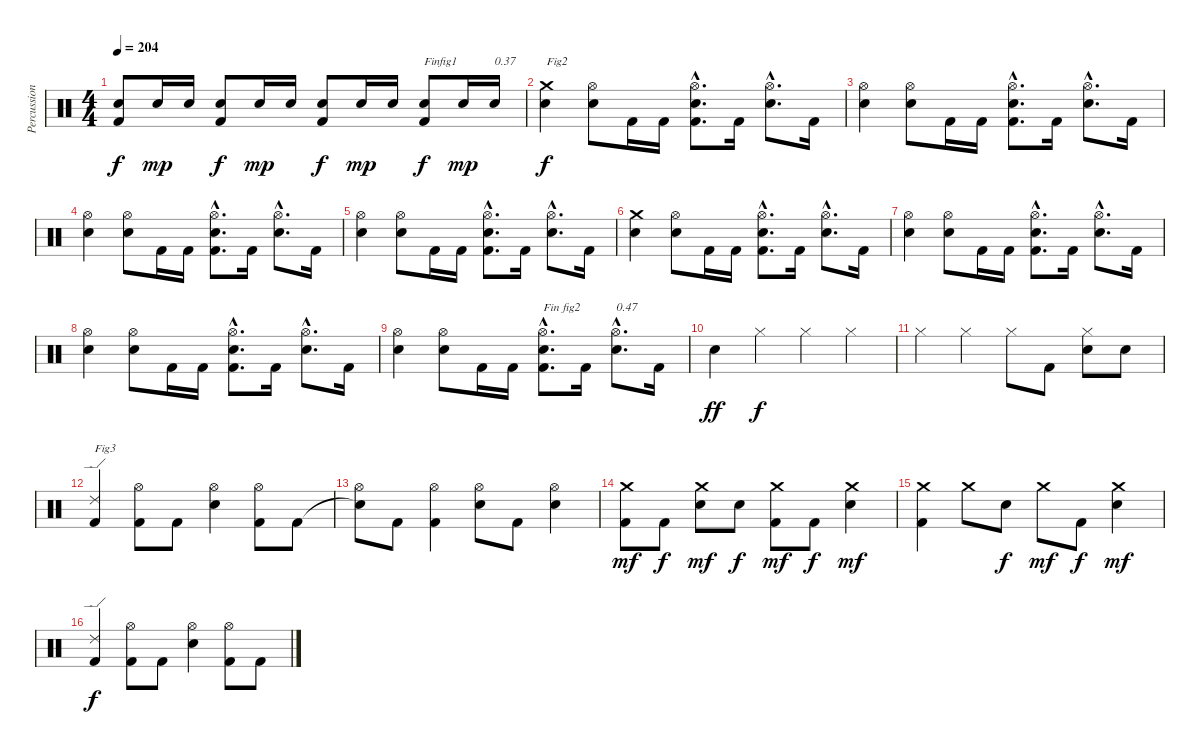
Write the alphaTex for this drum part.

\track ("Percussions" "Percussion") {instrument percussion}
\staff {score}
\articulation defaults
\ts (4 4)
\tempo 204
\clef neutral
\ks c
("Kick (hit) 2" "Electric Snare (hit)").8{dy f} "Electric Snare (hit)".16{dy mp} "Electric Snare (hit)".16 ("Kick (hit) 2" "Electric Snare (hit)").8{dy f} "Electric Snare (hit)".16{dy mp} "Electric Snare (hit)".16 ("Kick (hit) 2" "Electric Snare (hit)").8{dy f} "Electric Snare (hit)".16{dy mp} "Electric Snare (hit)".16 ("Kick (hit) 2" "Electric Snare (hit)").8{txt "Finfig1" dy f} "Electric Snare (hit)".16{dy mp} "Electric Snare (hit)".16{txt "0.37"} |
("Electric Snare (hit)" "Crash medium (hit)").4{txt "Fig2" dy f} ("Electric Snare (hit)" "Hi-Hat (open)").8 "Kick (hit) 2".16 "Kick (hit) 2".16 ("Kick (hit) 2"{hac} "Electric Snare (hit)"{hac} "Hi-Hat (open)"{hac}).8{d} "Kick (hit) 2".16 ("Electric Snare (hit)"{hac} "Hi-Hat (open)"{hac}).8{d} "Kick (hit) 2".16 |
("Electric Snare (hit)" "Hi-Hat (open)").4 ("Electric Snare (hit)" "Hi-Hat (open)").8 "Kick (hit) 2".16 "Kick (hit) 2".16 ("Kick (hit) 2"{hac} "Electric Snare (hit)"{hac} "Hi-Hat (open)"{hac}).8{d} "Kick (hit) 2".16 ("Electric Snare (hit)"{hac} "Hi-Hat (open)"{hac}).8{d} "Kick (hit) 2".16 |
("Electric Snare (hit)" "Hi-Hat (open)").4 ("Electric Snare (hit)" "Hi-Hat (open)").8 "Kick (hit) 2".16 "Kick (hit) 2".16 ("Kick (hit) 2"{hac} "Electric Snare (hit)"{hac} "Hi-Hat (open)"{hac}).8{d} "Kick (hit) 2".16 ("Electric Snare (hit)"{hac} "Hi-Hat (open)"{hac}).8{d} "Kick (hit) 2".16 |
("Electric Snare (hit)" "Hi-Hat (open)").4 ("Electric Snare (hit)" "Hi-Hat (open)").8 "Kick (hit) 2".16 "Kick (hit) 2".16 ("Kick (hit) 2"{hac} "Electric Snare (hit)"{hac} "Hi-Hat (open)"{hac}).8{d} "Kick (hit) 2".16 ("Electric Snare (hit)"{hac} "Hi-Hat (open)"{hac}).8{d} "Kick (hit) 2".16 |
("Electric Snare (hit)" "Crash medium (hit)").4 ("Electric Snare (hit)" "Hi-Hat (open)").8 "Kick (hit) 2".16 "Kick (hit) 2".16 ("Kick (hit) 2"{hac} "Electric Snare (hit)"{hac} "Hi-Hat (open)"{hac}).8{d} "Kick (hit) 2".16 ("Electric Snare (hit)"{hac} "Hi-Hat (open)"{hac}).8{d} "Kick (hit) 2".16 |
("Electric Snare (hit)" "Hi-Hat (open)").4 ("Electric Snare (hit)" "Hi-Hat (open)").8 "Kick (hit) 2".16 "Kick (hit) 2".16 ("Kick (hit) 2"{hac} "Electric Snare (hit)"{hac} "Hi-Hat (open)"{hac}).8{d} "Kick (hit) 2".16 ("Electric Snare (hit)"{hac} "Hi-Hat (open)"{hac}).8{d} "Kick (hit) 2".16 |
("Electric Snare (hit)" "Hi-Hat (open)").4 ("Electric Snare (hit)" "Hi-Hat (open)").8 "Kick (hit) 2".16 "Kick (hit) 2".16 ("Kick (hit) 2"{hac} "Electric Snare (hit)"{hac} "Hi-Hat (open)"{hac}).8{d} "Kick (hit) 2".16 ("Electric Snare (hit)"{hac} "Hi-Hat (open)"{hac}).8{d} "Kick (hit) 2".16 |
("Electric Snare (hit)" "Hi-Hat (open)").4 ("Electric Snare (hit)" "Hi-Hat (open)").8 "Kick (hit) 2".16 "Kick (hit) 2".16 ("Kick (hit) 2"{hac} "Electric Snare (hit)"{hac} "Hi-Hat (open)"{hac}).8{d txt "Fin fig2"} "Kick (hit) 2".16 ("Electric Snare (hit)"{hac} "Hi-Hat (open)"{hac}).8{d txt "0.47"} "Kick (hit) 2".16 |
"Electric Snare (hit)".4{dy ff} "Hi-Hat (closed)".4{dy f} "Hi-Hat (closed)".4 "Hi-Hat (closed)".4 |
"Hi-Hat (closed)".4 "Hi-Hat (closed)".4 "Hi-Hat (closed)".8 "Kick (hit) 2".8 ("Electric Snare (hit)" "Hi-Hat (closed)").8 "Electric Snare (hit)".8 |
("Kick (hit) 2" "Ride (edge) 2").4{txt "Fig3"} ("Kick (hit) 2" "Hi-Hat (open)").8 "Kick (hit) 2".8 ("Electric Snare (hit)" "Hi-Hat (open)").4 ("Kick (hit) 2" "Hi-Hat (open)").8 "Kick (hit) 2".8 |
("Snare (hit)"{t} "Hi-Hat (open)").8 "Kick (hit) 2".8 ("Kick (hit) 2" "Hi-Hat (open)").4 ("Electric Snare (hit)" "Hi-Hat (open)").8 "Kick (hit) 2".8 ("Electric Snare (hit)" "Hi-Hat (open)").4 |
("Kick (hit) 2" "Crash medium (hit)").8{dy mf} "Kick (hit) 2".8{dy f} ("Electric Snare (hit)" "Crash medium (hit)").8{dy mf} "Electric Snare (hit)".8{dy f} ("Kick (hit) 2" "Crash medium (hit)").8{dy mf} "Kick (hit) 2".8{dy f} ("Electric Snare (hit)" "Crash medium (hit)").4{dy mf} |
("Kick (hit) 2" "Crash medium (hit)").4 "Crash medium (hit)".8 "Electric Snare (hit)".8{dy f} "Crash medium (hit)".8{dy mf} "Kick (hit) 2".8{dy f} ("Electric Snare (hit)" "Crash medium (hit)").4{dy mf} |
("Kick (hit) 2" "Ride (edge) 2").4{dy f} ("Kick (hit) 2" "Hi-Hat (open)").8 "Kick (hit) 2".8 ("Electric Snare (hit)" "Hi-Hat (open)").4 ("Kick (hit) 2" "Hi-Hat (open)").8 "Kick (hit) 2".8
